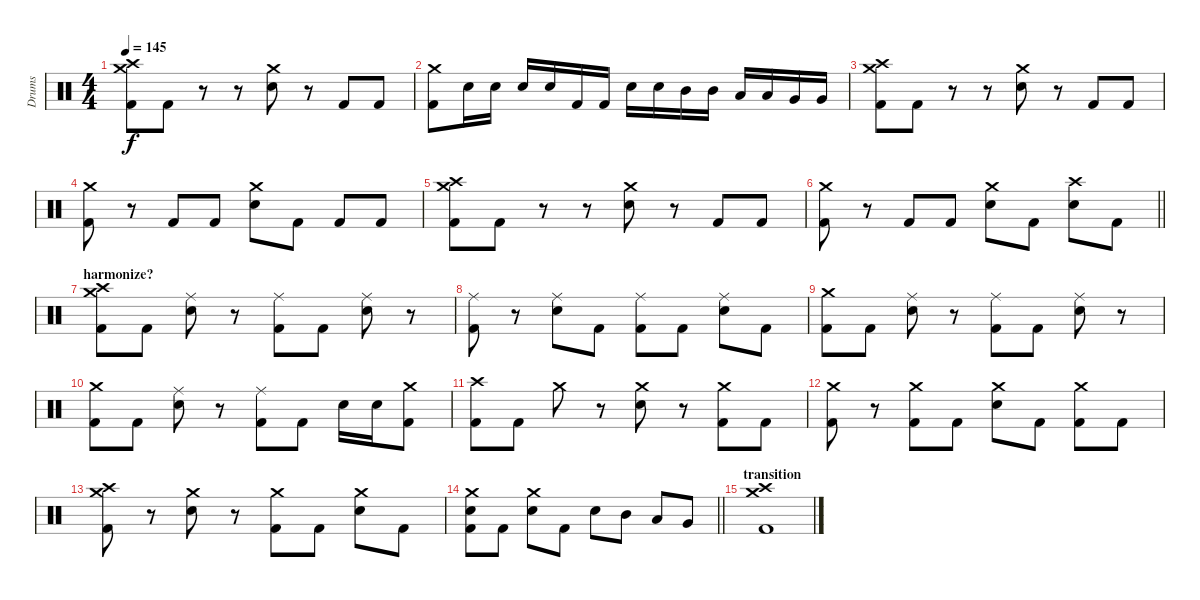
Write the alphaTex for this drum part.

\track ("Drums" "Drums") {instrument percussion}
\staff {score}
\articulation defaults
\ts (4 4)
\tempo 145
\clef neutral
\ks c
("Crash high (hit)" "Crash medium (hit)" "Kick (hit) 2").8{dy f} "Kick (hit) 2".8 r.8 r.8 ("Crash medium (hit)" "Snare (hit) 2").8 r.8 "Kick (hit) 2".8 "Kick (hit) 2".8 |
("Crash medium (hit)" "Kick (hit) 2").8 "Snare (hit) 2".16 "Snare (hit) 2".16 "Snare (hit) 2".16 "Snare (hit) 2".16 "Kick (hit) 2".16 "Kick (hit) 2".16 "Snare (hit) 2".16 "Snare (hit) 2".16 "Mid Tom (hit)".16 "Mid Tom (hit)".16 "Low Tom (hit)".16 "Low Tom (hit)".16 "Very Low Tom (hit)".16 "Very Low Tom (hit)".16 |
("Crash high (hit)" "Crash medium (hit)" "Kick (hit) 2").8 "Kick (hit) 2".8 r.8 r.8 ("Crash medium (hit)" "Snare (hit) 2").8 r.8 "Kick (hit) 2".8 "Kick (hit) 2".8 |
("Crash medium (hit)" "Kick (hit) 2").8 r.8 "Kick (hit) 2".8 "Kick (hit) 2".8 ("Crash medium (hit)" "Snare (hit) 2").8 "Kick (hit) 2".8 "Kick (hit) 2".8 "Kick (hit) 2".8 |
("Crash high (hit)" "Crash medium (hit)" "Kick (hit) 2").8 "Kick (hit) 2".8 r.8 r.8 ("Crash medium (hit)" "Snare (hit) 2").8 r.8 "Kick (hit) 2".8 "Kick (hit) 2".8 |
\barLineRight lightlight
("Crash medium (hit)" "Kick (hit) 2").8 r.8 "Kick (hit) 2".8 "Kick (hit) 2".8 ("Crash medium (hit)" "Snare (hit) 2").8 "Kick (hit) 2".8 ("Crash high (hit)" "Snare (hit) 2").8 "Kick (hit) 2".8 |
\section ("" "harmonize?")
("Crash high (hit)" "Crash medium (hit)" "Kick (hit) 2").8 "Kick (hit) 2".8 ("Ride (middle)" "Snare (hit) 2").8 r.8 ("Ride (middle)" "Kick (hit) 2").8 "Kick (hit) 2".8 ("Ride (middle)" "Snare (hit) 2").8 r.8 |
("Ride (middle)" "Kick (hit) 2").8 r.8 ("Ride (middle)" "Snare (hit) 2").8 "Kick (hit) 2".8 ("Ride (middle)" "Kick (hit) 2").8 "Kick (hit) 2".8 ("Ride (middle)" "Snare (hit) 2").8 "Kick (hit) 2".8 |
("Crash medium (hit)" "Kick (hit) 2").8 "Kick (hit) 2".8 ("Ride (middle)" "Snare (hit) 2").8 r.8 ("Ride (middle)" "Kick (hit) 2").8 "Kick (hit) 2".8 ("Ride (middle)" "Snare (hit) 2").8 r.8 |
("Crash medium (hit)" "Kick (hit) 2").8 "Kick (hit) 2".8 ("Ride (middle)" "Snare (hit) 2").8 r.8 ("Ride (middle)" "Kick (hit) 2").8 "Kick (hit) 2".8 "Snare (hit) 2".16 "Snare (hit) 2".16 ("Crash medium (hit)" "Kick (hit) 2").8 |
("Crash high (hit)" "Kick (hit) 2").8 "Kick (hit) 2".8 "Crash medium (hit)".8 r.8 ("Crash medium (hit)" "Snare (hit) 2").8 r.8 ("Crash medium (hit)" "Kick (hit) 2").8 "Kick (hit) 2".8 |
("Crash medium (hit)" "Kick (hit) 2").8 r.8 ("Crash medium (hit)" "Kick (hit) 2").8 "Kick (hit) 2".8 ("Crash medium (hit)" "Snare (hit) 2").8 "Kick (hit) 2".8 ("Crash medium (hit)" "Kick (hit) 2").8 "Kick (hit) 2".8 |
("Crash high (hit)" "Crash medium (hit)" "Kick (hit) 2").8 r.8 ("Crash medium (hit)" "Snare (hit) 2").8 r.8 ("Crash medium (hit)" "Kick (hit) 2").8 "Kick (hit) 2".8 ("Crash medium (hit)" "Snare (hit) 2").8 "Kick (hit) 2".8 |
\barLineRight lightlight
("Crash medium (hit)" "Snare (hit) 2" "Kick (hit) 2").8 "Kick (hit) 2".8 ("Crash medium (hit)" "Snare (hit) 2").8 "Kick (hit) 2".8 "Snare (hit) 2".8 "Mid Tom (hit)".8 "Low Tom (hit)".8 "Very Low Tom (hit)".8 |
\section ("" "transition")
("Crash medium (hit)" "Crash high (hit)" "Kick (hit) 2").1
